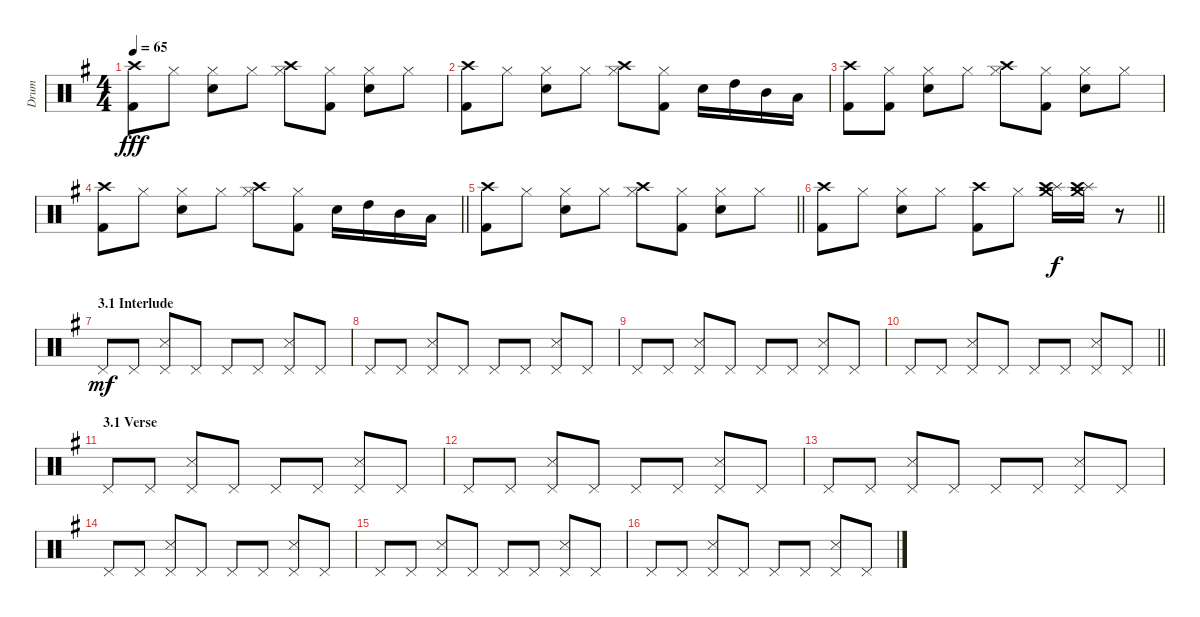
\track ("Drum" "Drum") {instrument percussion}
\staff {score}
\articulation defaults
\ts (4 4)
\tempo 65
\clef neutral
\ks eminor
("Crash high (hit)" "Kick (hit) 2").8{dy fff} "Hi-Hat (closed)".8 ("Electric Snare (hit)" "Hi-Hat (closed)").8 "Hi-Hat (closed)".8 ("Crash high (hit)" "Hi-Hat (closed)").8 ("Kick (hit) 2" "Hi-Hat (closed)").8 ("Electric Snare (hit)" "Hi-Hat (closed)").8 "Hi-Hat (closed)".8 |
("Crash high (hit)" "Kick (hit) 2").8 "Hi-Hat (closed)".8 ("Electric Snare (hit)" "Hi-Hat (closed)").8 "Hi-Hat (closed)".8 ("Crash high (hit)" "Hi-Hat (closed)").8 ("Kick (hit) 2" "Hi-Hat (closed)").8 "Electric Snare (hit)".16 "High Tom (hit)".16 "Mid Tom (hit)".16 "Low Tom (hit)".16 |
("Crash high (hit)" "Kick (hit) 2").8 ("Kick (hit) 2" "Hi-Hat (closed)").8 ("Electric Snare (hit)" "Hi-Hat (closed)").8 "Hi-Hat (closed)".8 ("Crash high (hit)" "Hi-Hat (closed)").8 ("Kick (hit) 2" "Hi-Hat (closed)").8 ("Electric Snare (hit)" "Hi-Hat (closed)").8 "Hi-Hat (closed)".8 |
\barLineRight lightlight
("Crash high (hit)" "Kick (hit) 2").8 "Hi-Hat (closed)".8 ("Electric Snare (hit)" "Hi-Hat (closed)").8 "Hi-Hat (closed)".8 ("Crash high (hit)" "Hi-Hat (closed)").8 ("Kick (hit) 2" "Hi-Hat (closed)").8 "Electric Snare (hit)".16 "High Tom (hit)".16 "Mid Tom (hit)".16 "Low Tom (hit)".16 |
\barLineRight lightlight
("Crash high (hit)" "Kick (hit) 2").8 "Hi-Hat (closed)".8 ("Electric Snare (hit)" "Hi-Hat (closed)").8 "Hi-Hat (closed)".8 ("Crash high (hit)" "Hi-Hat (closed)").8 ("Kick (hit) 2" "Hi-Hat (closed)").8 ("Electric Snare (hit)" "Hi-Hat (closed)").8 "Hi-Hat (closed)".8 |
\barLineRight lightlight
("Crash high (hit)" "Kick (hit) 2").8 "Hi-Hat (closed)".8 ("Electric Snare (hit)" "Hi-Hat (closed)").8 "Hi-Hat (closed)".8 ("Crash high (hit)" "Kick (hit) 2").8 "Hi-Hat (closed)".8 ("Splash (hit)" "Crash medium (hit)" "Crash high (hit)").16{dy f} ("Splash (hit)" "Crash medium (hit)" "Crash high (hit)").16 r.8 |
\section ("" "3.1 Interlude ")
"Pedal Hi-Hat (hit)".8{dy mf} "Pedal Hi-Hat (hit)".8 ("Pedal Hi-Hat (hit)" "Snare (side stick) 3").8 "Pedal Hi-Hat (hit)".8 "Pedal Hi-Hat (hit)".8 "Pedal Hi-Hat (hit)".8 ("Pedal Hi-Hat (hit)" "Snare (side stick) 3").8 "Pedal Hi-Hat (hit)".8 |
"Pedal Hi-Hat (hit)".8 "Pedal Hi-Hat (hit)".8 ("Pedal Hi-Hat (hit)" "Snare (side stick) 3").8 "Pedal Hi-Hat (hit)".8 "Pedal Hi-Hat (hit)".8 "Pedal Hi-Hat (hit)".8 ("Pedal Hi-Hat (hit)" "Snare (side stick) 3").8 "Pedal Hi-Hat (hit)".8 |
"Pedal Hi-Hat (hit)".8 "Pedal Hi-Hat (hit)".8 ("Pedal Hi-Hat (hit)" "Snare (side stick) 3").8 "Pedal Hi-Hat (hit)".8 "Pedal Hi-Hat (hit)".8 "Pedal Hi-Hat (hit)".8 ("Pedal Hi-Hat (hit)" "Snare (side stick) 3").8 "Pedal Hi-Hat (hit)".8 |
\barLineRight lightlight "Pedal Hi-Hat (hit)".8 "Pedal Hi-Hat (hit)".8
("Pedal Hi-Hat (hit)" "Snare (side stick) 3").8 "Pedal Hi-Hat (hit)".8 "Pedal Hi-Hat (hit)".8 "Pedal Hi-Hat (hit)".8 ("Pedal Hi-Hat (hit)" "Snare (side stick) 3").8 "Pedal Hi-Hat (hit)".8 |
\section ("" "3.1 Verse")
"Pedal Hi-Hat (hit)".8 "Pedal Hi-Hat (hit)".8 ("Pedal Hi-Hat (hit)" "Snare (side stick) 3").8 "Pedal Hi-Hat (hit)".8 "Pedal Hi-Hat (hit)".8 "Pedal Hi-Hat (hit)".8 ("Pedal Hi-Hat (hit)" "Snare (side stick) 3").8 "Pedal Hi-Hat (hit)".8 |
"Pedal Hi-Hat (hit)".8 "Pedal Hi-Hat (hit)".8 ("Pedal Hi-Hat (hit)" "Snare (side stick) 3").8 "Pedal Hi-Hat (hit)".8 "Pedal Hi-Hat (hit)".8 "Pedal Hi-Hat (hit)".8 ("Pedal Hi-Hat (hit)" "Snare (side stick) 3").8 "Pedal Hi-Hat (hit)".8 |
"Pedal Hi-Hat (hit)".8 "Pedal Hi-Hat (hit)".8 ("Pedal Hi-Hat (hit)" "Snare (side stick) 3").8 "Pedal Hi-Hat (hit)".8 "Pedal Hi-Hat (hit)".8 "Pedal Hi-Hat (hit)".8 ("Pedal Hi-Hat (hit)" "Snare (side stick) 3").8 "Pedal Hi-Hat (hit)".8 |
"Pedal Hi-Hat (hit)".8 "Pedal Hi-Hat (hit)".8 ("Pedal Hi-Hat (hit)" "Snare (side stick) 3").8 "Pedal Hi-Hat (hit)".8 "Pedal Hi-Hat (hit)".8 "Pedal Hi-Hat (hit)".8 ("Pedal Hi-Hat (hit)" "Snare (side stick) 3").8 "Pedal Hi-Hat (hit)".8 |
"Pedal Hi-Hat (hit)".8 "Pedal Hi-Hat (hit)".8 ("Pedal Hi-Hat (hit)" "Snare (side stick) 3").8 "Pedal Hi-Hat (hit)".8 "Pedal Hi-Hat (hit)".8 "Pedal Hi-Hat (hit)".8 ("Pedal Hi-Hat (hit)" "Snare (side stick) 3").8 "Pedal Hi-Hat (hit)".8 |
"Pedal Hi-Hat (hit)".8 "Pedal Hi-Hat (hit)".8 ("Pedal Hi-Hat (hit)" "Snare (side stick) 3").8 "Pedal Hi-Hat (hit)".8 "Pedal Hi-Hat (hit)".8 "Pedal Hi-Hat (hit)".8 ("Pedal Hi-Hat (hit)" "Snare (side stick) 3").8 "Pedal Hi-Hat (hit)".8
